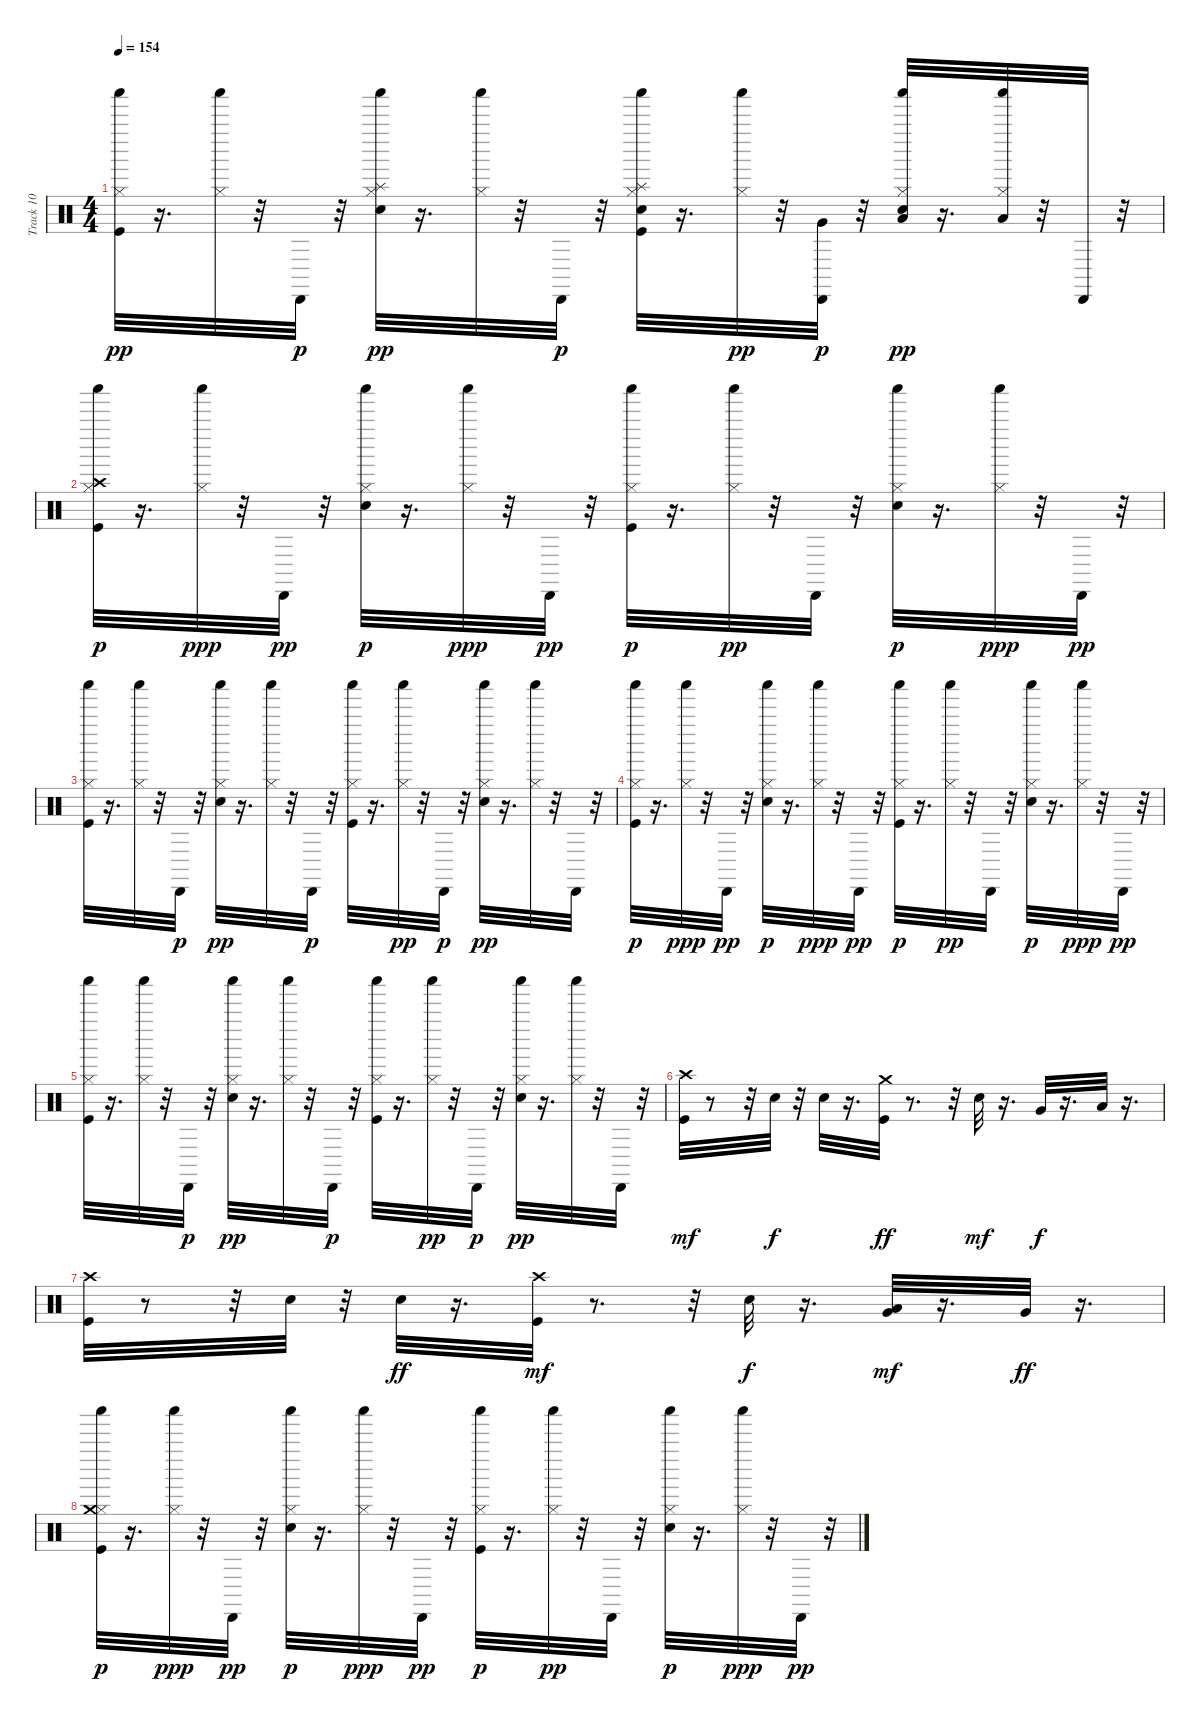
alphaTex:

\track ("Track 10" "Track 10") {instrument percussion}
\staff {score}
\articulation defaults
\ts (4 4)
\tempo 154
\clef neutral
\ks c
("Kick (hit)" "Hi-Hat (closed)" "Shaker (hit)").32{dy pp} r.16{d} ("Hi-Hat (closed)" "Shaker (hit)").32 r.32 "Cabasa (hit)".32{dy p} r.32 ("Electric Snare (hit)" "Hi-Hat (closed)" "Splash (hit)" "Shaker (hit)").32{dy pp} r.16{d} ("Hi-Hat (closed)" "Shaker (hit)").32 r.32 "Cabasa (hit)".32{dy p} r.32 ("Kick (hit)" "Electric Snare (hit)" "Hi-Hat (closed)" "Splash (hit)" "Shaker (hit)").32 r.16{d} ("Hi-Hat (closed)" "Shaker (hit)").32{dy pp} r.32 ("Very Low Tom (hit)" "Cabasa (hit)").32{dy p} r.32 ("Electric Snare (hit)" "Hi-Hat (closed)" "Low Tom (hit)" "Shaker (hit)").32{dy pp} r.16{d} ("Low Floor Tom (hit)" "Hi-Hat (closed)" "Shaker (hit)").32 r.32 "Cabasa (hit)".32 r.32 |
("Kick (hit)" "Hi-Hat (closed)" "Crash high (hit)" "Shaker (hit)").32{dy p} r.16{d} ("Hi-Hat (closed)" "Shaker (hit)").32{dy ppp} r.32 "Cabasa (hit)".32{dy pp} r.32 ("Electric Snare (hit)" "Hi-Hat (closed)" "Shaker (hit)").32{dy p} r.16{d} ("Hi-Hat (closed)" "Shaker (hit)").32{dy ppp} r.32 "Cabasa (hit)".32{dy pp} r.32 ("Kick (hit)" "Hi-Hat (closed)" "Shaker (hit)").32{dy p} r.16{d} ("Hi-Hat (closed)" "Shaker (hit)").32{dy pp} r.32 "Cabasa (hit)".32 r.32 ("Electric Snare (hit)" "Hi-Hat (closed)" "Shaker (hit)").32{dy p} r.16{d} ("Hi-Hat (closed)" "Shaker (hit)").32{dy ppp} r.32 "Cabasa (hit)".32{dy pp} r.32 |
("Kick (hit)" "Hi-Hat (closed)" "Shaker (hit)").32 r.16{d} ("Hi-Hat (closed)" "Shaker (hit)").32 r.32 "Cabasa (hit)".32{dy p} r.32 ("Electric Snare (hit)" "Hi-Hat (closed)" "Shaker (hit)").32{dy pp} r.16{d} ("Hi-Hat (closed)" "Shaker (hit)").32 r.32 "Cabasa (hit)".32{dy p} r.32 ("Kick (hit)" "Hi-Hat (closed)" "Shaker (hit)").32 r.16{d} ("Hi-Hat (closed)" "Shaker (hit)").32{dy pp} r.32 "Cabasa (hit)".32{dy p} r.32 ("Electric Snare (hit)" "Hi-Hat (closed)" "Shaker (hit)").32{dy pp} r.16{d} ("Hi-Hat (closed)" "Shaker (hit)").32 r.32 "Cabasa (hit)".32 r.32 |
("Kick (hit)" "Hi-Hat (closed)" "Shaker (hit)").32{dy p} r.16{d} ("Hi-Hat (closed)" "Shaker (hit)").32{dy ppp} r.32 "Cabasa (hit)".32{dy pp} r.32 ("Electric Snare (hit)" "Hi-Hat (closed)" "Shaker (hit)").32{dy p} r.16{d} ("Hi-Hat (closed)" "Shaker (hit)").32{dy ppp} r.32 "Cabasa (hit)".32{dy pp} r.32 ("Kick (hit)" "Hi-Hat (closed)" "Shaker (hit)").32{dy p} r.16{d} ("Hi-Hat (closed)" "Shaker (hit)").32{dy pp} r.32 "Cabasa (hit)".32 r.32 ("Electric Snare (hit)" "Hi-Hat (closed)" "Shaker (hit)").32{dy p} r.16{d} ("Hi-Hat (closed)" "Shaker (hit)").32{dy ppp} r.32 "Cabasa (hit)".32{dy pp} r.32 |
("Kick (hit)" "Hi-Hat (closed)" "Shaker (hit)").32 r.16{d} ("Hi-Hat (closed)" "Shaker (hit)").32 r.32 "Cabasa (hit)".32{dy p} r.32 ("Electric Snare (hit)" "Hi-Hat (closed)" "Shaker (hit)").32{dy pp} r.16{d} ("Hi-Hat (closed)" "Shaker (hit)").32 r.32 "Cabasa (hit)".32{dy p} r.32 ("Kick (hit)" "Hi-Hat (closed)" "Shaker (hit)").32 r.16{d} ("Hi-Hat (closed)" "Shaker (hit)").32{dy pp} r.32 "Cabasa (hit)".32{dy p} r.32 ("Electric Snare (hit)" "Hi-Hat (closed)" "Shaker (hit)").32{dy pp} r.16{d} ("Hi-Hat (closed)" "Shaker (hit)").32 r.32 "Cabasa (hit)".32 r.32 |
("Kick (hit)" "Crash high (hit)").32{dy mf} r.8 r.32 "Electric Snare (hit)".32{dy f} r.32 "Electric Snare (hit)".32 r.16{d} ("Kick (hit)" "Crash medium (hit)").32{dy ff} r.8{d} r.32 "Electric Snare (hit)".32{dy mf} r.16{d} "Very Low Tom (hit)".32{dy f} r.16{d} "Low Tom (hit)".32 r.16{d} |
("Kick (hit)" "Crash high (hit)").32 r.8 r.32 "Electric Snare (hit)".32 r.32 "Electric Snare (hit)".32{dy ff} r.16{d} ("Kick (hit)" "Crash high (hit)").32{dy mf} r.8{d} r.32 "Electric Snare (hit)".32{dy f} r.16{d} ("Very Low Tom (hit)" "Low Tom (hit)").32{dy mf} r.16{d} "Very Low Tom (hit)".32{dy ff} r.16{d} |
("Kick (hit)" "Hi-Hat (closed)" "Crash medium (hit)" "Shaker (hit)").32{dy p} r.16{d} ("Hi-Hat (closed)" "Shaker (hit)").32{dy ppp} r.32 "Cabasa (hit)".32{dy pp} r.32 ("Electric Snare (hit)" "Hi-Hat (closed)" "Shaker (hit)").32{dy p} r.16{d} ("Hi-Hat (closed)" "Shaker (hit)").32{dy ppp} r.32 "Cabasa (hit)".32{dy pp} r.32 ("Kick (hit)" "Hi-Hat (closed)" "Shaker (hit)").32{dy p} r.16{d} ("Hi-Hat (closed)" "Shaker (hit)").32{dy pp} r.32 "Cabasa (hit)".32 r.32 ("Electric Snare (hit)" "Hi-Hat (closed)" "Shaker (hit)").32{dy p} r.16{d} ("Hi-Hat (closed)" "Shaker (hit)").32{dy ppp} r.32 "Cabasa (hit)".32{dy pp} r.32
